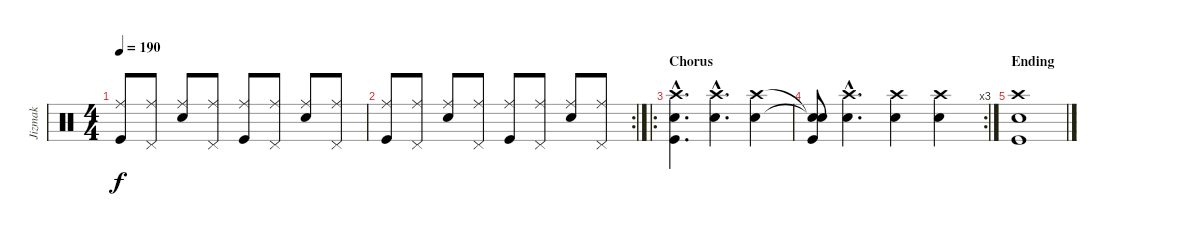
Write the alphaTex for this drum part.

\track ("Jizmak" "Jizmak") {instrument percussion}
\staff {score}
\articulation defaults
\ts (4 4)
\tempo 190
\clef neutral
\ks c
("Ride (middle)" "Kick (hit)").8{dy f} ("Ride (middle)" "Pedal Hi-Hat (hit)").8 ("Ride (middle)" "Snare (hit) 2").8 ("Ride (middle)" "Pedal Hi-Hat (hit)").8 ("Ride (middle)" "Kick (hit)").8 ("Ride (middle)" "Pedal Hi-Hat (hit)").8 ("Ride (middle)" "Snare (hit) 2").8 ("Ride (middle)" "Pedal Hi-Hat (hit)").8 |
\rc 2
("Ride (middle)" "Kick (hit)").8 ("Ride (middle)" "Pedal Hi-Hat (hit)").8 ("Ride (middle)" "Snare (hit) 2").8 ("Ride (middle)" "Pedal Hi-Hat (hit)").8 ("Ride (middle)" "Kick (hit)").8 ("Ride (middle)" "Pedal Hi-Hat (hit)").8 ("Ride (middle)" "Snare (hit) 2").8 ("Ride (middle)" "Pedal Hi-Hat (hit)").8 |
\ro
\section ("" "Chorus")
("Crash high (hit)"{hac} "Snare (hit) 2"{hac} "Kick (hit)"{hac}).4{d} ("Crash high (hit)"{hac} "Snare (hit) 2"{hac}).4{d} ("Crash high (hit)" "Snare (hit) 2").4 |
\rc 3
("Snare (hit)"{t} "Snare (hit) 2"{t} "Kick (hit)").8 ("Crash high (hit)"{hac} "Snare (hit) 2"{hac}).4{d} ("Crash high (hit)" "Snare (hit) 2").4 ("Crash high (hit)" "Snare (hit) 2").4 |
\section ("" "Ending")
("Crash high (hit)" "Snare (hit) 2" "Kick (hit)").1
